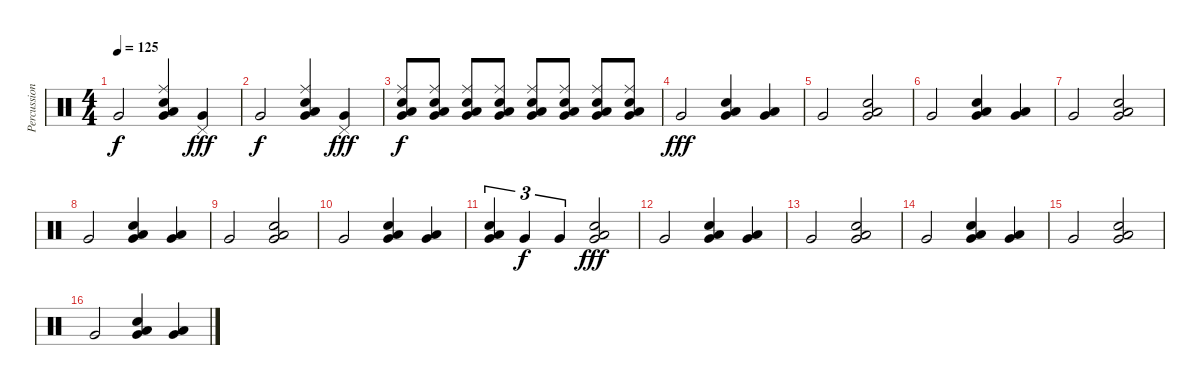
\track ("Percussion" "Percussion") {instrument percussion}
\staff {score}
\articulation defaults
\ts (4 4)
\tempo 125
\clef neutral
\ks c "Very Low Tom (hit)".2{dy f}
("Very Low Tom (hit)" "Low Floor Tom (hit)" "Ride (middle)" "Snare (hit) 2").4 ("Very Low Tom (hit)" "Pedal Hi-Hat (hit)").4{dy fff} |
"Very Low Tom (hit)".2{dy f} ("Very Low Tom (hit)" "Low Floor Tom (hit)" "Ride (middle)" "Snare (hit) 2").4 ("Very Low Tom (hit)" "Pedal Hi-Hat (hit)").4{dy fff} |
("Very Low Tom (hit)" "Low Floor Tom (hit)" "Ride (middle)" "Snare (hit) 2").8{dy f} ("Very Low Tom (hit)" "Low Floor Tom (hit)" "Ride (middle)" "Snare (hit) 2").8 ("Very Low Tom (hit)" "Low Floor Tom (hit)" "Ride (middle)" "Snare (hit) 2").8 ("Very Low Tom (hit)" "Low Floor Tom (hit)" "Ride (middle)" "Snare (hit) 2").8 ("Very Low Tom (hit)" "Low Floor Tom (hit)" "Ride (middle)" "Snare (hit) 2").8 ("Very Low Tom (hit)" "Low Floor Tom (hit)" "Ride (middle)" "Snare (hit) 2").8 ("Very Low Tom (hit)" "Low Floor Tom (hit)" "Ride (middle)" "Snare (hit) 2").8 ("Very Low Tom (hit)" "Low Floor Tom (hit)" "Ride (middle)" "Snare (hit) 2").8 |
"Very Low Tom (hit)".2{dy fff} ("Very Low Tom (hit)" "Snare (hit) 2" "Low Floor Tom (hit)").4 ("Very Low Tom (hit)" "Low Floor Tom (hit)").4 |
"Very Low Tom (hit)".2 ("Very Low Tom (hit)" "Snare (hit) 2" "Low Floor Tom (hit)").2 |
"Very Low Tom (hit)".2 ("Very Low Tom (hit)" "Snare (hit) 2" "Low Floor Tom (hit)").4 ("Very Low Tom (hit)" "Low Floor Tom (hit)").4 |
"Very Low Tom (hit)".2 ("Very Low Tom (hit)" "Snare (hit) 2" "Low Floor Tom (hit)").2 |
"Very Low Tom (hit)".2 ("Very Low Tom (hit)" "Snare (hit) 2" "Low Floor Tom (hit)").4 ("Very Low Tom (hit)" "Low Floor Tom (hit)").4 |
"Very Low Tom (hit)".2 ("Very Low Tom (hit)" "Snare (hit) 2" "Low Floor Tom (hit)").2 |
"Very Low Tom (hit)".2 ("Very Low Tom (hit)" "Snare (hit) 2" "Low Floor Tom (hit)").4 ("Very Low Tom (hit)" "Low Floor Tom (hit)").4 |
("Very Low Tom (hit)" "Snare (hit) 2" "Low Floor Tom (hit)").4{tu (3 2)} "Very Low Tom (hit)".4{tu (3 2) dy f} "Very Low Tom (hit)".4{tu (3 2)} ("Very Low Tom (hit)" "Snare (hit) 2" "Low Floor Tom (hit)").2{dy fff} |
"Very Low Tom (hit)".2 ("Very Low Tom (hit)" "Snare (hit) 2" "Low Floor Tom (hit)").4 ("Very Low Tom (hit)" "Low Floor Tom (hit)").4 |
"Very Low Tom (hit)".2 ("Very Low Tom (hit)" "Snare (hit) 2" "Low Floor Tom (hit)").2 |
"Very Low Tom (hit)".2 ("Very Low Tom (hit)" "Snare (hit) 2" "Low Floor Tom (hit)").4 ("Very Low Tom (hit)" "Low Floor Tom (hit)").4 |
"Very Low Tom (hit)".2 ("Very Low Tom (hit)" "Snare (hit) 2" "Low Floor Tom (hit)").2 |
"Very Low Tom (hit)".2 ("Very Low Tom (hit)" "Snare (hit) 2" "Low Floor Tom (hit)").4 ("Very Low Tom (hit)" "Low Floor Tom (hit)").4
